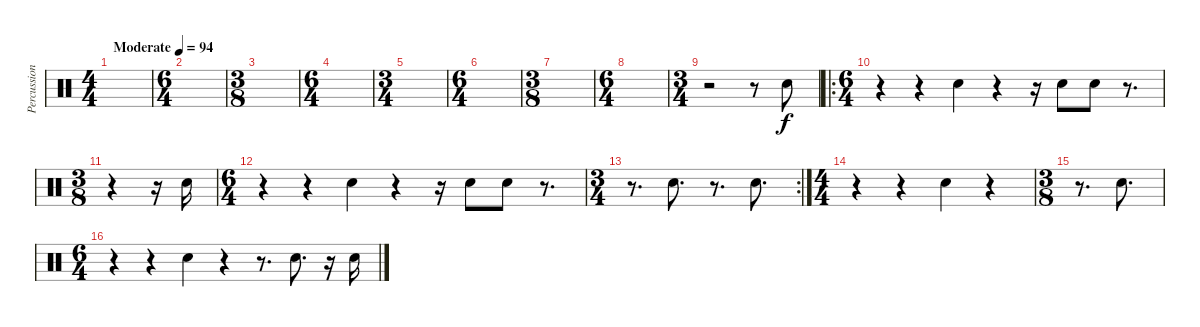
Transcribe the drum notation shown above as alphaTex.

\track ("Percussion" "Percussion") {instrument percussion}
\staff {score}
\articulation defaults
\ts (4 4)
\tempo (94 "Moderate")
\clef neutral
\ks c
|
\ts (6 4)
|
\ts (3 8)
|
\ts (6 4)
|
\ts (3 4)
|
\ts (6 4)
|
\ts (3 8)
|
\ts (6 4)
|
\ts (3 4)
r.2 r.8 "Electric Snare (hit)".8 |
\ro
\ts (6 4)
r.4 r.4 "Electric Snare (hit)".4 r.4 r.16 "Electric Snare (hit)".8 "Electric Snare (hit)".8 r.8{d} |
\ts (3 8)
r.4 r.16 "Electric Snare (hit)".16 |
\ts (6 4)
r.4 r.4 "Electric Snare (hit)".4 r.4 r.16 "Electric Snare (hit)".8 "Electric Snare (hit)".8 r.8{d} |
\rc 2
\ts (3 4)
r.8{d} "Electric Snare (hit)".8{d} r.8{d} "Electric Snare (hit)".8{d} |
\ts (4 4)
r.4 r.4 "Electric Snare (hit)".4 r.4 |
\ts (3 8)
r.8{d} "Electric Snare (hit)".8{d} |
\ts (6 4)
r.4 r.4 "Electric Snare (hit)".4 r.4 r.8{d} "Electric Snare (hit)".8{d} r.16 "Electric Snare (hit)".16
